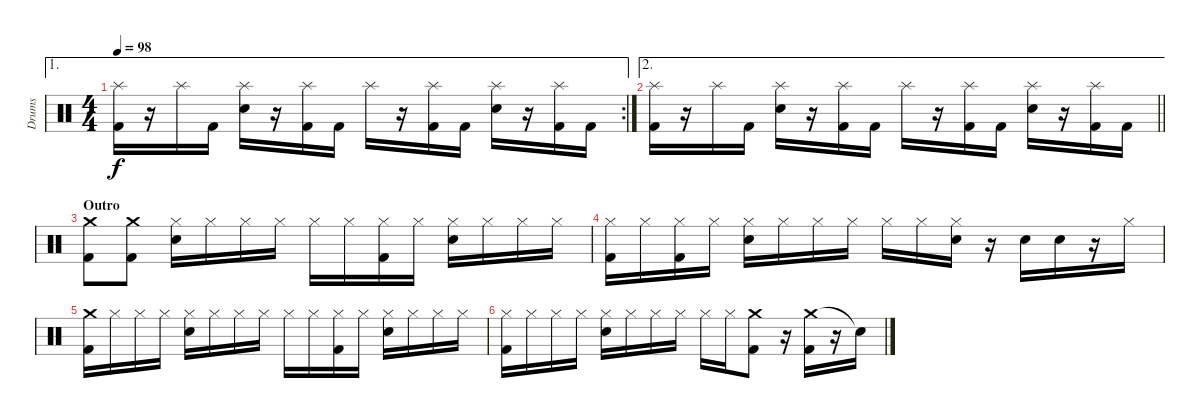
\track ("Drums" "Drums") {instrument percussion}
\staff {score}
\articulation defaults
\ae 1
\rc 2
\ts (4 4)
\tempo 98
\clef neutral
\ks c
("Splash (hit)" "Kick (hit) 2").16{dy f} r.16 "Splash (hit)".16 "Kick (hit) 2".16 ("Splash (hit)" "Electric Snare (hit)").16 r.16 ("Splash (hit)" "Kick (hit) 2").16 "Kick (hit) 2".16 "Splash (hit)".16 r.16 ("Splash (hit)" "Kick (hit) 2").16 "Kick (hit) 2".16 ("Splash (hit)" "Electric Snare (hit)").16 r.16 ("Splash (hit)" "Kick (hit) 2").16 "Kick (hit) 2".16 |
\ae 2
\barLineRight lightlight
("Splash (hit)" "Kick (hit) 2").16 r.16 "Splash (hit)".16 "Kick (hit) 2".16 ("Splash (hit)" "Electric Snare (hit)").16 r.16 ("Splash (hit)" "Kick (hit) 2").16 "Kick (hit) 2".16 "Splash (hit)".16 r.16 ("Splash (hit)" "Kick (hit) 2").16 "Kick (hit) 2".16 ("Splash (hit)" "Electric Snare (hit)").16 r.16 ("Splash (hit)" "Kick (hit) 2").16 "Kick (hit) 2".16 |
\section ("" "Outro ")
("Crash medium (hit)" "Kick (hit) 2").8 ("Crash medium (hit)" "Kick (hit) 2").8 ("Hi-Hat (closed)" "Electric Snare (hit)").16 "Hi-Hat (closed)".16 "Hi-Hat (closed)".16 "Hi-Hat (closed)".16 "Hi-Hat (closed)".16 "Hi-Hat (closed)".16 ("Hi-Hat (closed)" "Kick (hit) 2").16 "Hi-Hat (closed)".16 ("Hi-Hat (closed)" "Electric Snare (hit)").16 "Hi-Hat (closed)".16 "Hi-Hat (closed)".16 "Hi-Hat (closed)".16 |
("Hi-Hat (closed)" "Kick (hit) 2").16 "Hi-Hat (closed)".16 ("Hi-Hat (closed)" "Kick (hit) 2").16 "Hi-Hat (closed)".16 ("Hi-Hat (closed)" "Electric Snare (hit)").16 "Hi-Hat (closed)".16 "Hi-Hat (closed)".16 "Hi-Hat (closed)".16 "Hi-Hat (closed)".16 "Hi-Hat (closed)".16 ("Hi-Hat (closed)" "Electric Snare (hit)").16 r.16 "Electric Snare (hit)".16 "Electric Snare (hit)".16 r.16 "Hi-Hat (closed)".16 |
("Crash medium (hit)" "Kick (hit) 2").16 "Hi-Hat (closed)".16 "Hi-Hat (closed)".16 "Hi-Hat (closed)".16 ("Hi-Hat (closed)" "Electric Snare (hit)").16 "Hi-Hat (closed)".16 "Hi-Hat (closed)".16 "Hi-Hat (closed)".16 "Hi-Hat (closed)".16 "Hi-Hat (closed)".16 ("Hi-Hat (closed)" "Kick (hit) 2").16 "Hi-Hat (closed)".16 ("Hi-Hat (closed)" "Electric Snare (hit)").16 "Hi-Hat (closed)".16 "Hi-Hat (closed)".16 "Hi-Hat (closed)".16 |
("Hi-Hat (closed)" "Kick (hit) 2").16 "Hi-Hat (closed)".16 "Hi-Hat (closed)".16 "Hi-Hat (closed)".16 ("Hi-Hat (closed)" "Electric Snare (hit)").16 "Hi-Hat (closed)".16 "Hi-Hat (closed)".16 "Hi-Hat (closed)".16 "Hi-Hat (closed)".16 "Hi-Hat (closed)".16 ("Crash medium (hit)" "Kick (hit) 2").8 r.16 ("Crash medium (hit)" "Kick (hit) 2").16 r.16 "Snare (hit)"{t}.16
